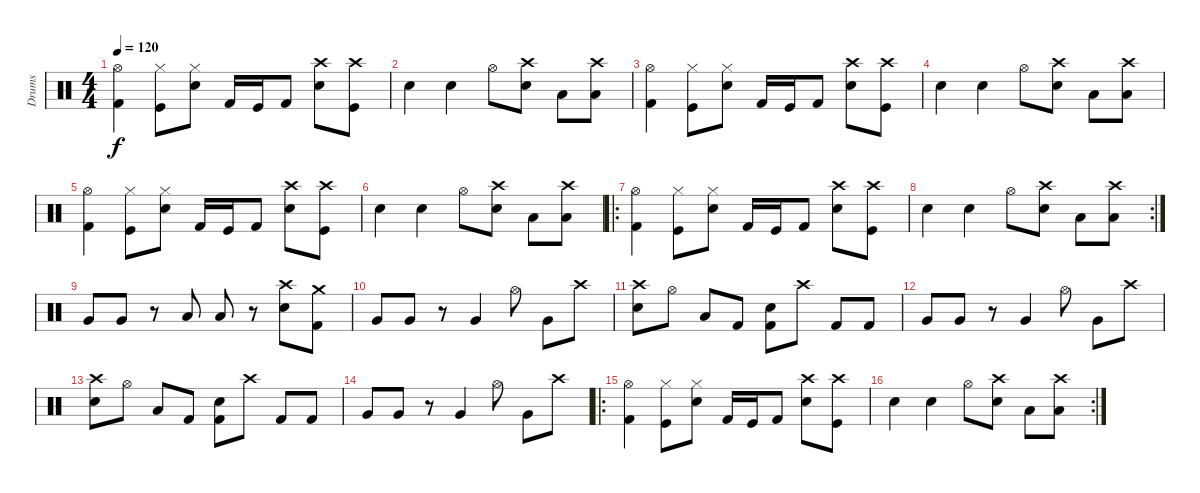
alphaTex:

\track ("Drums" "Drums") {instrument percussion}
\staff {score}
\articulation defaults
\ts (4 4)
\tempo 120
\clef neutral
\ks c
("Kick (hit) 2" "Hi-Hat (open)").4{dy f} ("Kick (hit)" "Hi-Hat (closed)").8 ("Hi-Hat (closed)" "Electric Snare (hit)").8 "Kick (hit) 2".16 "Kick (hit)".16 "Kick (hit) 2".8 ("Electric Snare (hit)" "Crash high (hit)").8 ("Kick (hit)" "Crash high (hit)").8 |
"Electric Snare (hit)".4 "Electric Snare (hit)".4 "Hi-Hat (open)".8 ("Snare (hit) 2" "Crash high (hit)").8 "Low Tom (hit)".8 ("Low Tom (hit)" "Crash high (hit)").8 |
("Kick (hit) 2" "Hi-Hat (open)").4 ("Kick (hit)" "Hi-Hat (closed)").8 ("Hi-Hat (closed)" "Electric Snare (hit)").8 "Kick (hit) 2".16 "Kick (hit)".16 "Kick (hit) 2".8 ("Electric Snare (hit)" "Crash high (hit)").8 ("Kick (hit)" "Crash high (hit)").8 |
"Electric Snare (hit)".4 "Electric Snare (hit)".4 "Hi-Hat (open)".8 ("Snare (hit) 2" "Crash high (hit)").8 "Low Tom (hit)".8 ("Low Tom (hit)" "Crash high (hit)").8 |
("Kick (hit) 2" "Hi-Hat (open)").4 ("Kick (hit)" "Hi-Hat (closed)").8 ("Hi-Hat (closed)" "Electric Snare (hit)").8 "Kick (hit) 2".16 "Kick (hit)".16 "Kick (hit) 2".8 ("Electric Snare (hit)" "Crash high (hit)").8 ("Kick (hit)" "Crash high (hit)").8 |
"Electric Snare (hit)".4 "Electric Snare (hit)".4 "Hi-Hat (open)".8 ("Snare (hit) 2" "Crash high (hit)").8 "Low Tom (hit)".8 ("Low Tom (hit)" "Crash high (hit)").8 |
\ro
("Kick (hit) 2" "Hi-Hat (open)").4 ("Kick (hit)" "Hi-Hat (closed)").8 ("Hi-Hat (closed)" "Electric Snare (hit)").8 "Kick (hit) 2".16 "Kick (hit)".16 "Kick (hit) 2".8 ("Electric Snare (hit)" "Crash high (hit)").8 ("Kick (hit)" "Crash high (hit)").8 |
\rc 2 "Electric Snare (hit)".4 "Electric Snare (hit)".4 "Hi-Hat (open)".8
("Snare (hit) 2" "Crash high (hit)").8 "Low Tom (hit)".8 ("Low Tom (hit)" "Crash high (hit)").8 |
"Very Low Tom (hit)".8 "Very Low Tom (hit)".8 r.8 "Low Tom (hit)".8 "Low Tom (hit)".8 r.8 ("Electric Snare (hit)" "Crash high (hit)").8 ("Kick (hit) 2" "Crash medium (hit)").8 |
"Very Low Tom (hit)".8 "Very Low Tom (hit)".8 r.8 "Very Low Tom (hit)".4 "Hi-Hat (open)".8 "Very Low Tom (hit)".8 "Crash high (hit)".8 |
("Crash high (hit)" "Electric Snare (hit)").8 "Hi-Hat (open)".8 "Low Tom (hit)".8 "Kick (hit) 2".8 ("Kick (hit) 2" "Electric Snare (hit)").8 "Crash high (hit)".8 "Kick (hit) 2".8 "Kick (hit) 2".8 |
"Very Low Tom (hit)".8 "Very Low Tom (hit)".8 r.8 "Very Low Tom (hit)".4 "Hi-Hat (open)".8 "Very Low Tom (hit)".8 "Crash high (hit)".8 |
("Crash high (hit)" "Electric Snare (hit)").8 "Hi-Hat (open)".8 "Low Tom (hit)".8 "Kick (hit) 2".8 ("Kick (hit) 2" "Electric Snare (hit)").8 "Crash high (hit)".8 "Kick (hit) 2".8 "Kick (hit) 2".8 |
"Very Low Tom (hit)".8 "Very Low Tom (hit)".8 r.8 "Very Low Tom (hit)".4 "Hi-Hat (open)".8 "Very Low Tom (hit)".8 "Crash high (hit)".8 |
\ro
("Kick (hit) 2" "Hi-Hat (open)").4 ("Kick (hit)" "Hi-Hat (closed)").8 ("Hi-Hat (closed)" "Electric Snare (hit)").8 "Kick (hit) 2".16 "Kick (hit)".16 "Kick (hit) 2".8 ("Electric Snare (hit)" "Crash high (hit)").8 ("Kick (hit)" "Crash high (hit)").8 |
\rc 2 "Electric Snare (hit)".4 "Electric Snare (hit)".4 "Hi-Hat (open)".8
("Snare (hit) 2" "Crash high (hit)").8 "Low Tom (hit)".8 ("Low Tom (hit)" "Crash high (hit)").8
